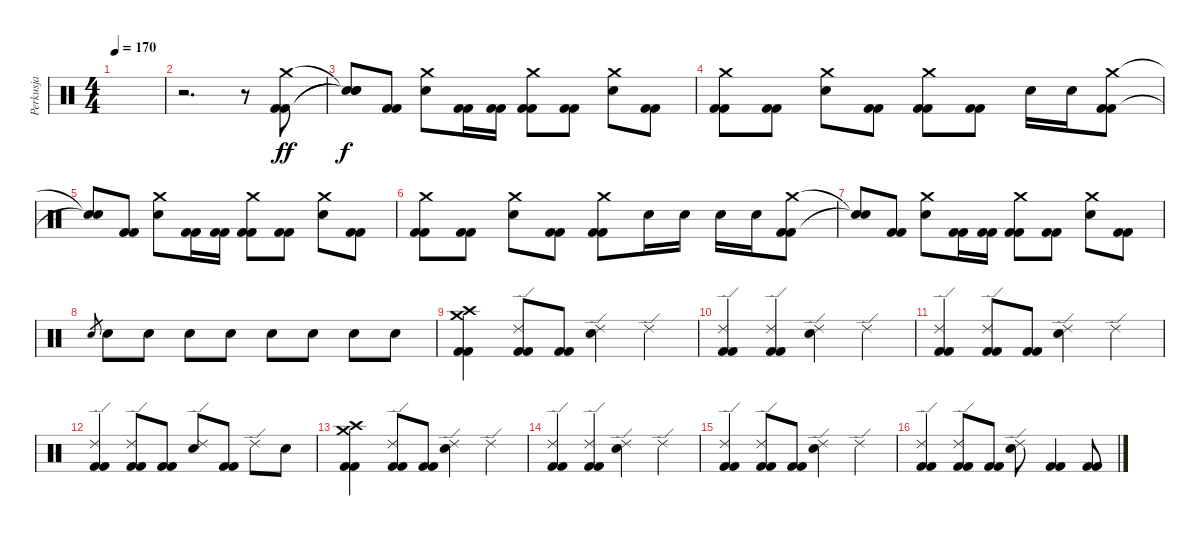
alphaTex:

\track ("Perkusja" "Perkusja") {instrument percussion}
\staff {score}
\articulation defaults
\ts (4 4)
\tempo 170
\clef neutral
\ks c
|
r.2{d} r.8 ("Crash medium (hit)" "Kick (hit) 2" "Kick (hit) 2").8{dy ff} |
("Snare (hit)"{t} "Snare (hit)"{t} "Snare (hit)"{t}).8{dy f} ("Kick (hit) 2" "Kick (hit) 2").8 ("Crash medium (hit)" "Electric Snare (hit)").8 ("Kick (hit) 2" "Kick (hit) 2").16 ("Kick (hit) 2" "Kick (hit) 2").16 ("Crash medium (hit)" "Kick (hit) 2" "Kick (hit) 2").8 ("Kick (hit) 2" "Kick (hit) 2").8 ("Crash medium (hit)" "Electric Snare (hit)").8 ("Kick (hit) 2" "Kick (hit) 2").8 |
("Crash medium (hit)" "Kick (hit) 2" "Kick (hit) 2").8 ("Kick (hit) 2" "Kick (hit) 2").8 ("Crash medium (hit)" "Electric Snare (hit)").8 ("Kick (hit) 2" "Kick (hit) 2").8 ("Crash medium (hit)" "Kick (hit) 2" "Kick (hit) 2").8 ("Kick (hit) 2" "Kick (hit) 2").8 "Electric Snare (hit)".16 "Electric Snare (hit)".16 ("Crash medium (hit)" "Kick (hit) 2" "Kick (hit) 2").8 |
("Snare (hit)"{t} "Snare (hit)"{t}).8 ("Kick (hit) 2" "Kick (hit) 2").8 ("Crash medium (hit)" "Electric Snare (hit)").8 ("Kick (hit) 2" "Kick (hit) 2").16 ("Kick (hit) 2" "Kick (hit) 2").16 ("Crash medium (hit)" "Kick (hit) 2" "Kick (hit) 2").8 ("Kick (hit) 2" "Kick (hit) 2").8 ("Crash medium (hit)" "Electric Snare (hit)").8 ("Kick (hit) 2" "Kick (hit) 2").8 |
("Crash medium (hit)" "Kick (hit) 2" "Kick (hit) 2").8 ("Kick (hit) 2" "Kick (hit) 2").8 ("Crash medium (hit)" "Electric Snare (hit)").8 ("Kick (hit) 2" "Kick (hit) 2").8 ("Crash medium (hit)" "Kick (hit) 2" "Kick (hit) 2").8 "Electric Snare (hit)".16 "Electric Snare (hit)".16 "Electric Snare (hit)".16 "Electric Snare (hit)".16 ("Crash medium (hit)" "Kick (hit) 2" "Kick (hit) 2").8 |
("Snare (hit)"{t} "Snare (hit)"{t}).8 ("Kick (hit) 2" "Kick (hit) 2").8 ("Crash medium (hit)" "Electric Snare (hit)").8 ("Kick (hit) 2" "Kick (hit) 2").16 ("Kick (hit) 2" "Kick (hit) 2").16 ("Crash medium (hit)" "Kick (hit) 2" "Kick (hit) 2").8 ("Kick (hit) 2" "Kick (hit) 2").8 ("Crash medium (hit)" "Electric Snare (hit)").8 ("Kick (hit) 2" "Kick (hit) 2").8 |
"Electric Snare (hit)".8{gr} "Electric Snare (hit)".8 "Electric Snare (hit)".8 "Electric Snare (hit)".8 "Electric Snare (hit)".8 "Electric Snare (hit)".8 "Electric Snare (hit)".8 "Electric Snare (hit)".8 "Electric Snare (hit)".8 |
("Crash high (hit)" "Crash medium (hit)" "Kick (hit) 2" "Kick (hit) 2").4 ("Ride (edge) 2" "Kick (hit) 2" "Kick (hit) 2").8 ("Kick (hit) 2" "Kick (hit) 2").8 ("Ride (edge) 2" "Electric Snare (hit)").4 "Ride (edge) 2".4 |
("Ride (edge) 2" "Kick (hit) 2" "Kick (hit) 2").4 ("Ride (edge) 2" "Kick (hit) 2" "Kick (hit) 2").4 ("Ride (edge) 2" "Electric Snare (hit)").4 "Ride (edge) 2".4 |
("Ride (edge) 2" "Kick (hit) 2" "Kick (hit) 2").4 ("Ride (edge) 2" "Kick (hit) 2" "Kick (hit) 2").8 ("Kick (hit) 2" "Kick (hit) 2").8 ("Ride (edge) 2" "Electric Snare (hit)").4 "Ride (edge) 2".4 |
("Ride (edge) 2" "Kick (hit) 2" "Kick (hit) 2").4 ("Ride (edge) 2" "Kick (hit) 2" "Kick (hit) 2").8 ("Kick (hit) 2" "Kick (hit) 2").8 ("Ride (edge) 2" "Electric Snare (hit)").8 ("Kick (hit) 2" "Kick (hit) 2").8 "Ride (edge) 2".8 "Electric Snare (hit)".8 |
("Crash high (hit)" "Crash medium (hit)" "Kick (hit) 2" "Kick (hit) 2").4 ("Ride (edge) 2" "Kick (hit) 2" "Kick (hit) 2").8 ("Kick (hit) 2" "Kick (hit) 2").8 ("Ride (edge) 2" "Electric Snare (hit)").4 "Ride (edge) 2".4 |
("Ride (edge) 2" "Kick (hit) 2" "Kick (hit) 2").4 ("Ride (edge) 2" "Kick (hit) 2" "Kick (hit) 2").4 ("Ride (edge) 2" "Electric Snare (hit)").4 "Ride (edge) 2".4 |
("Ride (edge) 2" "Kick (hit) 2" "Kick (hit) 2").4 ("Ride (edge) 2" "Kick (hit) 2" "Kick (hit) 2").8 ("Kick (hit) 2" "Kick (hit) 2").8 ("Ride (edge) 2" "Electric Snare (hit)").4 "Ride (edge) 2".4 |
("Ride (edge) 2" "Kick (hit) 2" "Kick (hit) 2").4 ("Ride (edge) 2" "Kick (hit) 2" "Kick (hit) 2").8 ("Kick (hit) 2" "Kick (hit) 2").8 ("Ride (edge) 2" "Electric Snare (hit)").8 ("Kick (hit) 2" "Kick (hit) 2").4 ("Kick (hit) 2" "Kick (hit) 2").8
